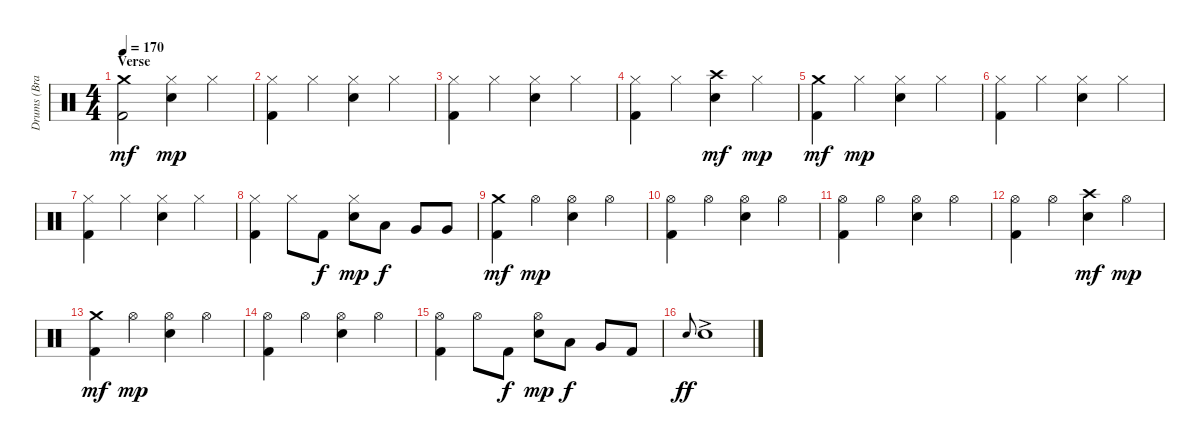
\track ("Drums (Brandon Saller)" "Drums (Bra") {instrument percussion}
\staff {score}
\articulation defaults
\ts (4 4)
\section ("" "Verse")
\tempo 170
\clef neutral
\ks c
("Crash medium (hit)" "Kick (hit) 2").2{dy mf} ("Hi-Hat (closed)" "Electric Snare (hit)").4{dy mp} "Hi-Hat (closed)".4 |
("Hi-Hat (closed)" "Kick (hit) 2").4 "Hi-Hat (closed)".4 ("Hi-Hat (closed)" "Electric Snare (hit)").4 "Hi-Hat (closed)".4 |
("Hi-Hat (closed)" "Kick (hit) 2").4 "Hi-Hat (closed)".4 ("Hi-Hat (closed)" "Electric Snare (hit)").4 "Hi-Hat (closed)".4 |
("Hi-Hat (closed)" "Kick (hit) 2").4 "Hi-Hat (closed)".4 ("Crash high (hit)" "Electric Snare (hit)").4{dy mf} "Hi-Hat (closed)".4{dy mp} |
("Crash medium (hit)" "Kick (hit) 2").4{dy mf} "Hi-Hat (closed)".4{dy mp} ("Hi-Hat (closed)" "Electric Snare (hit)").4 "Hi-Hat (closed)".4 |
("Hi-Hat (closed)" "Kick (hit) 2").4 "Hi-Hat (closed)".4 ("Hi-Hat (closed)" "Electric Snare (hit)").4 "Hi-Hat (closed)".4 |
("Hi-Hat (closed)" "Kick (hit) 2").4 "Hi-Hat (closed)".4 ("Hi-Hat (closed)" "Electric Snare (hit)").4 "Hi-Hat (closed)".4 |
("Hi-Hat (closed)" "Kick (hit) 2").4 "Hi-Hat (closed)".8 "Kick (hit) 2".8{dy f} ("Hi-Hat (closed)" "Electric Snare (hit)").8{dy mp} "Low Tom (hit)".8{dy f} "Very Low Tom (hit)".8 "Very Low Tom (hit)".8 |
("Crash medium (hit)" "Kick (hit) 2").4{dy mf} "Hi-Hat (open)".4{dy mp} ("Hi-Hat (open)" "Electric Snare (hit)").4 "Hi-Hat (open)".4 |
("Hi-Hat (open)" "Kick (hit) 2").4 "Hi-Hat (open)".4 ("Hi-Hat (open)" "Electric Snare (hit)").4 "Hi-Hat (open)".4 |
("Hi-Hat (open)" "Kick (hit) 2").4 "Hi-Hat (open)".4 ("Hi-Hat (open)" "Electric Snare (hit)").4 "Hi-Hat (open)".4 |
("Hi-Hat (open)" "Kick (hit) 2").4 "Hi-Hat (open)".4 ("Crash high (hit)" "Electric Snare (hit)").4{dy mf} "Hi-Hat (open)".4{dy mp} |
("Crash medium (hit)" "Kick (hit) 2").4{dy mf} "Hi-Hat (open)".4{dy mp} ("Hi-Hat (open)" "Electric Snare (hit)").4 "Hi-Hat (open)".4 |
("Hi-Hat (open)" "Kick (hit) 2").4 "Hi-Hat (open)".4 ("Hi-Hat (open)" "Electric Snare (hit)").4 "Hi-Hat (open)".4 |
("Hi-Hat (open)" "Kick (hit) 2").4 "Hi-Hat (open)".8 "Kick (hit) 2".8{dy f} ("Hi-Hat (open)" "Electric Snare (hit)").8{dy mp} "Low Tom (hit)".8{dy f} "Very Low Tom (hit)".8 "Kick (hit) 2".8 |
"Electric Snare (hit)"{h}.8{gr onbeat dy ff} "Electric Snare (hit)"{ac}.1
